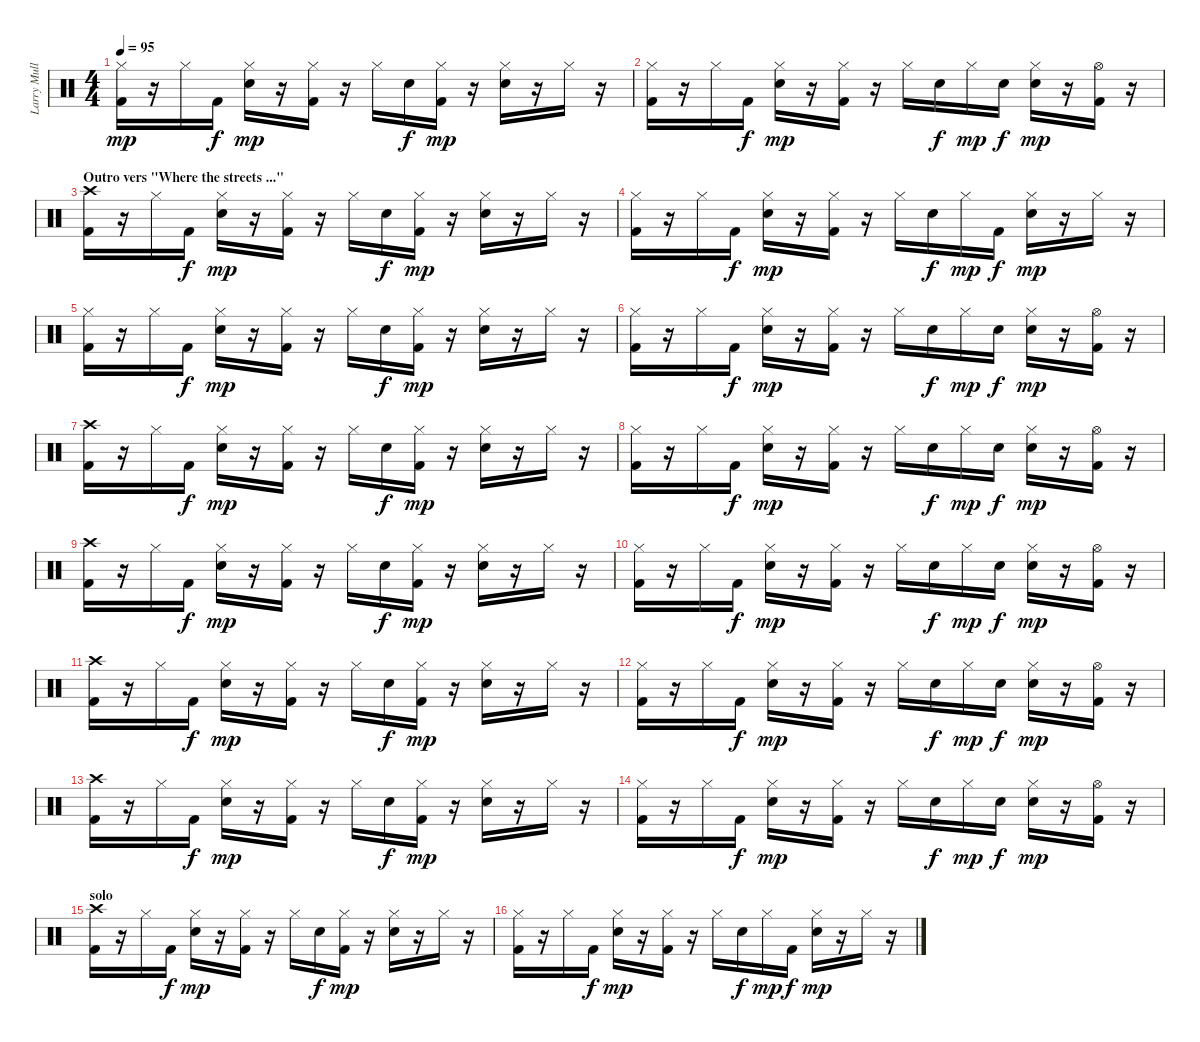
\track ("Larry Mullen Jr" "Larry Mull") {instrument percussion}
\staff {score}
\articulation defaults
\ts (4 4)
\tempo 95
\clef neutral
\ks c
("Hi-Hat (closed)" "Kick (hit) 2").16{dy mp} r.16 "Hi-Hat (closed)".16 "Kick (hit) 2".16{dy f} ("Hi-Hat (closed)" "Snare (hit) 2").16{dy mp} r.16 ("Hi-Hat (closed)" "Kick (hit) 2").16 r.16 "Hi-Hat (closed)".16 "Snare (hit) 2".16{dy f} ("Hi-Hat (closed)" "Kick (hit) 2").16{dy mp} r.16 ("Hi-Hat (closed)" "Snare (hit) 2").16 r.16 "Hi-Hat (closed)".16 r.16 |
("Hi-Hat (closed)" "Kick (hit) 2").16 r.16 "Hi-Hat (closed)".16 "Kick (hit) 2".16{dy f} ("Hi-Hat (closed)" "Snare (hit) 2").16{dy mp} r.16 ("Hi-Hat (closed)" "Kick (hit) 2").16 r.16 "Hi-Hat (closed)".16 "Snare (hit) 2".16{dy f} "Hi-Hat (closed)".16{dy mp} "Snare (hit) 2".16{dy f} ("Hi-Hat (closed)" "Snare (hit) 2").16{dy mp} r.16 ("Hi-Hat (open)" "Kick (hit) 2").16 r.16 |
\section ("" "Outro vers \"Where the streets ...\"")
("Crash high (hit)" "Kick (hit) 2").16 r.16 "Hi-Hat (closed)".16 "Kick (hit) 2".16{dy f} ("Hi-Hat (closed)" "Snare (hit) 2").16{dy mp} r.16 ("Hi-Hat (closed)" "Kick (hit) 2").16 r.16 "Hi-Hat (closed)".16 "Snare (hit) 2".16{dy f} ("Hi-Hat (closed)" "Kick (hit) 2").16{dy mp} r.16 ("Hi-Hat (closed)" "Snare (hit) 2").16 r.16 "Hi-Hat (closed)".16 r.16 |
("Hi-Hat (closed)" "Kick (hit) 2").16 r.16 "Hi-Hat (closed)".16 "Kick (hit) 2".16{dy f} ("Hi-Hat (closed)" "Snare (hit) 2").16{dy mp} r.16 ("Hi-Hat (closed)" "Kick (hit) 2").16 r.16 "Hi-Hat (closed)".16 "Snare (hit) 2".16{dy f} "Hi-Hat (closed)".16{dy mp} "Kick (hit) 2".16{dy f} ("Hi-Hat (closed)" "Snare (hit) 2").16{dy mp} r.16 "Hi-Hat (closed)".16 r.16 |
("Hi-Hat (closed)" "Kick (hit) 2").16 r.16 "Hi-Hat (closed)".16 "Kick (hit) 2".16{dy f} ("Hi-Hat (closed)" "Snare (hit) 2").16{dy mp} r.16 ("Hi-Hat (closed)" "Kick (hit) 2").16 r.16 "Hi-Hat (closed)".16 "Snare (hit) 2".16{dy f} ("Hi-Hat (closed)" "Kick (hit) 2").16{dy mp} r.16 ("Hi-Hat (closed)" "Snare (hit) 2").16 r.16 "Hi-Hat (closed)".16 r.16 |
("Hi-Hat (closed)" "Kick (hit) 2").16 r.16 "Hi-Hat (closed)".16 "Kick (hit) 2".16{dy f} ("Hi-Hat (closed)" "Snare (hit) 2").16{dy mp} r.16 ("Hi-Hat (closed)" "Kick (hit) 2").16 r.16 "Hi-Hat (closed)".16 "Snare (hit) 2".16{dy f} "Hi-Hat (closed)".16{dy mp} "Snare (hit) 2".16{dy f} ("Hi-Hat (closed)" "Snare (hit) 2").16{dy mp} r.16 ("Hi-Hat (open)" "Kick (hit) 2").16 r.16 |
("Crash high (hit)" "Kick (hit) 2").16 r.16 "Hi-Hat (closed)".16 "Kick (hit) 2".16{dy f} ("Hi-Hat (closed)" "Snare (hit) 2").16{dy mp} r.16 ("Hi-Hat (closed)" "Kick (hit) 2").16 r.16 "Hi-Hat (closed)".16 "Snare (hit) 2".16{dy f} ("Hi-Hat (closed)" "Kick (hit) 2").16{dy mp} r.16 ("Hi-Hat (closed)" "Snare (hit) 2").16 r.16 "Hi-Hat (closed)".16 r.16 |
("Hi-Hat (closed)" "Kick (hit) 2").16 r.16 "Hi-Hat (closed)".16 "Kick (hit) 2".16{dy f} ("Hi-Hat (closed)" "Snare (hit) 2").16{dy mp} r.16 ("Hi-Hat (closed)" "Kick (hit) 2").16 r.16 "Hi-Hat (closed)".16 "Snare (hit) 2".16{dy f} "Hi-Hat (closed)".16{dy mp} "Snare (hit) 2".16{dy f} ("Hi-Hat (closed)" "Snare (hit) 2").16{dy mp} r.16 ("Hi-Hat (open)" "Kick (hit) 2").16 r.16 |
("Crash high (hit)" "Kick (hit) 2").16 r.16 "Hi-Hat (closed)".16 "Kick (hit) 2".16{dy f} ("Hi-Hat (closed)" "Snare (hit) 2").16{dy mp} r.16 ("Hi-Hat (closed)" "Kick (hit) 2").16 r.16 "Hi-Hat (closed)".16 "Snare (hit) 2".16{dy f} ("Hi-Hat (closed)" "Kick (hit) 2").16{dy mp} r.16 ("Hi-Hat (closed)" "Snare (hit) 2").16 r.16 "Hi-Hat (closed)".16 r.16 |
("Hi-Hat (closed)" "Kick (hit) 2").16 r.16 "Hi-Hat (closed)".16 "Kick (hit) 2".16{dy f} ("Hi-Hat (closed)" "Snare (hit) 2").16{dy mp} r.16 ("Hi-Hat (closed)" "Kick (hit) 2").16 r.16 "Hi-Hat (closed)".16 "Snare (hit) 2".16{dy f} "Hi-Hat (closed)".16{dy mp} "Snare (hit) 2".16{dy f} ("Hi-Hat (closed)" "Snare (hit) 2").16{dy mp} r.16 ("Hi-Hat (open)" "Kick (hit) 2").16 r.16 |
("Crash high (hit)" "Kick (hit) 2").16 r.16 "Hi-Hat (closed)".16 "Kick (hit) 2".16{dy f} ("Hi-Hat (closed)" "Snare (hit) 2").16{dy mp} r.16 ("Hi-Hat (closed)" "Kick (hit) 2").16 r.16 "Hi-Hat (closed)".16 "Snare (hit) 2".16{dy f} ("Hi-Hat (closed)" "Kick (hit) 2").16{dy mp} r.16 ("Hi-Hat (closed)" "Snare (hit) 2").16 r.16 "Hi-Hat (closed)".16 r.16 |
("Hi-Hat (closed)" "Kick (hit) 2").16 r.16 "Hi-Hat (closed)".16 "Kick (hit) 2".16{dy f} ("Hi-Hat (closed)" "Snare (hit) 2").16{dy mp} r.16 ("Hi-Hat (closed)" "Kick (hit) 2").16 r.16 "Hi-Hat (closed)".16 "Snare (hit) 2".16{dy f} "Hi-Hat (closed)".16{dy mp} "Snare (hit) 2".16{dy f} ("Hi-Hat (closed)" "Snare (hit) 2").16{dy mp} r.16 ("Hi-Hat (open)" "Kick (hit) 2").16 r.16 |
("Crash high (hit)" "Kick (hit) 2").16 r.16 "Hi-Hat (closed)".16 "Kick (hit) 2".16{dy f} ("Hi-Hat (closed)" "Snare (hit) 2").16{dy mp} r.16 ("Hi-Hat (closed)" "Kick (hit) 2").16 r.16 "Hi-Hat (closed)".16 "Snare (hit) 2".16{dy f} ("Hi-Hat (closed)" "Kick (hit) 2").16{dy mp} r.16 ("Hi-Hat (closed)" "Snare (hit) 2").16 r.16 "Hi-Hat (closed)".16 r.16 |
("Hi-Hat (closed)" "Kick (hit) 2").16 r.16 "Hi-Hat (closed)".16 "Kick (hit) 2".16{dy f} ("Hi-Hat (closed)" "Snare (hit) 2").16{dy mp} r.16 ("Hi-Hat (closed)" "Kick (hit) 2").16 r.16 "Hi-Hat (closed)".16 "Snare (hit) 2".16{dy f} "Hi-Hat (closed)".16{dy mp} "Snare (hit) 2".16{dy f} ("Hi-Hat (closed)" "Snare (hit) 2").16{dy mp} r.16 ("Hi-Hat (open)" "Kick (hit) 2").16 r.16 |
\section ("" "solo")
("Crash high (hit)" "Kick (hit) 2").16 r.16 "Hi-Hat (closed)".16 "Kick (hit) 2".16{dy f} ("Hi-Hat (closed)" "Snare (hit) 2").16{dy mp} r.16 ("Hi-Hat (closed)" "Kick (hit) 2").16 r.16 "Hi-Hat (closed)".16 "Snare (hit) 2".16{dy f} ("Hi-Hat (closed)" "Kick (hit) 2").16{dy mp} r.16 ("Hi-Hat (closed)" "Snare (hit) 2").16 r.16 "Hi-Hat (closed)".16 r.16 |
("Hi-Hat (closed)" "Kick (hit) 2").16 r.16 "Hi-Hat (closed)".16 "Kick (hit) 2".16{dy f} ("Hi-Hat (closed)" "Snare (hit) 2").16{dy mp} r.16 ("Hi-Hat (closed)" "Kick (hit) 2").16 r.16 "Hi-Hat (closed)".16 "Snare (hit) 2".16{dy f} "Hi-Hat (closed)".16{dy mp} "Kick (hit) 2".16{dy f} ("Hi-Hat (closed)" "Snare (hit) 2").16{dy mp} r.16 "Hi-Hat (closed)".16 r.16
